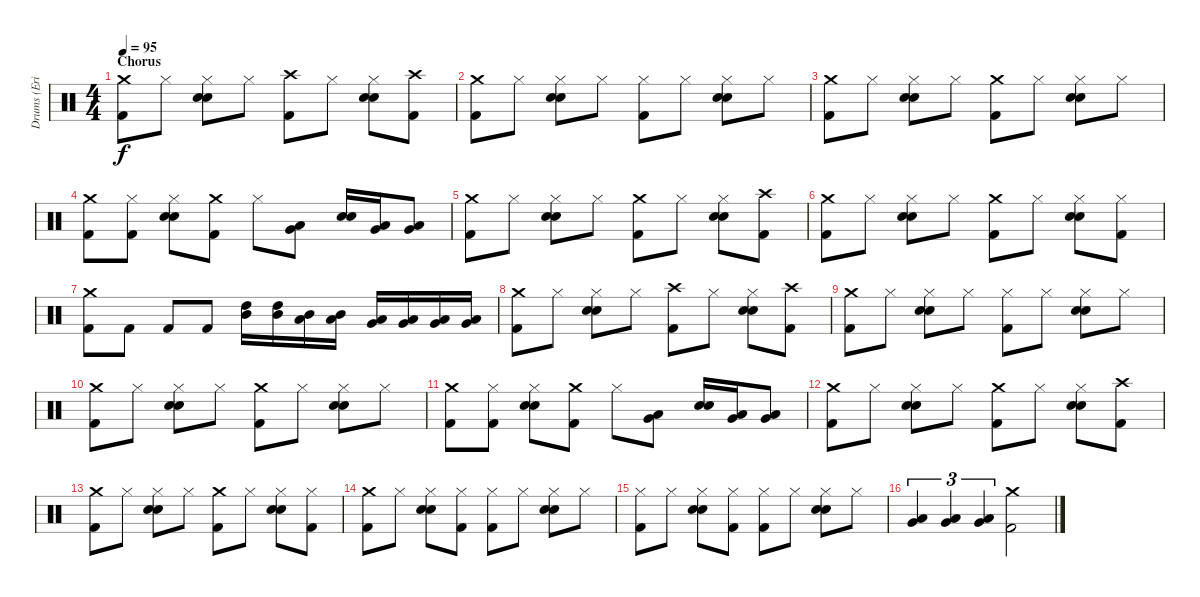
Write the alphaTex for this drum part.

\track ("Drums (Eric Carr)" "Drums (Eri") {instrument percussion}
\staff {score}
\articulation defaults
\ts (4 4)
\section ("" "Chorus")
\tempo 95
\clef neutral
\ks c
("Crash medium (hit)" "Kick (hit) 2").8{dy f} "Hi-Hat (closed)".8 ("Hi-Hat (closed)" "Electric Snare (hit)" "Snare (hit) 2").8 "Hi-Hat (closed)".8 ("Crash high (hit)" "Kick (hit) 2").8 "Hi-Hat (closed)".8 ("Hi-Hat (closed)" "Electric Snare (hit)" "Snare (hit) 2").8 ("Kick (hit) 2" "Crash high (hit)").8 |
("Crash medium (hit)" "Kick (hit) 2").8 "Hi-Hat (closed)".8 ("Hi-Hat (closed)" "Electric Snare (hit)" "Snare (hit) 2").8 "Hi-Hat (closed)".8 ("Hi-Hat (closed)" "Kick (hit) 2").8 "Hi-Hat (closed)".8 ("Hi-Hat (closed)" "Electric Snare (hit)" "Snare (hit) 2").8 "Hi-Hat (closed)".8 |
("Crash medium (hit)" "Kick (hit) 2").8 "Hi-Hat (closed)".8 ("Hi-Hat (closed)" "Electric Snare (hit)" "Snare (hit) 2").8 "Hi-Hat (closed)".8 ("Crash medium (hit)" "Kick (hit) 2").8 "Hi-Hat (closed)".8 ("Hi-Hat (closed)" "Electric Snare (hit)" "Snare (hit) 2").8 "Hi-Hat (closed)".8 |
("Crash medium (hit)" "Kick (hit) 2").8 ("Kick (hit) 2" "Hi-Hat (closed)").8 ("Hi-Hat (closed)" "Electric Snare (hit)" "Snare (hit) 2").8 ("Crash medium (hit)" "Kick (hit) 2").8 "Hi-Hat (closed)".8 ("Low Tom (hit)" "Very Low Tom (hit)").8 ("Snare (hit) 2" "Electric Snare (hit)").16 ("Very Low Tom (hit)" "Low Tom (hit)").16 ("Very Low Tom (hit)" "Low Tom (hit)").8 |
("Crash medium (hit)" "Kick (hit) 2").8 "Hi-Hat (closed)".8 ("Hi-Hat (closed)" "Electric Snare (hit)" "Snare (hit) 2").8 "Hi-Hat (closed)".8 ("Crash medium (hit)" "Kick (hit) 2").8 "Hi-Hat (closed)".8 ("Hi-Hat (closed)" "Electric Snare (hit)" "Snare (hit) 2").8 ("Kick (hit) 2" "Crash high (hit)").8 |
("Crash medium (hit)" "Kick (hit) 2").8 "Hi-Hat (closed)".8 ("Hi-Hat (closed)" "Electric Snare (hit)" "Snare (hit) 2").8 "Hi-Hat (closed)".8 ("Crash medium (hit)" "Kick (hit) 2").8 "Hi-Hat (closed)".8 ("Hi-Hat (closed)" "Electric Snare (hit)" "Snare (hit) 2").8 ("Kick (hit) 2" "Hi-Hat (closed)").8 |
("Crash medium (hit)" "Kick (hit) 2").8 "Kick (hit) 2".8 "Kick (hit) 2".8 "Kick (hit) 2".8 ("Mid Tom (hit)" "High Tom (hit)").16 ("Mid Tom (hit)" "High Tom (hit)").16 ("Low Tom (hit)" "Mid Tom (hit)").16 ("Low Tom (hit)" "Mid Tom (hit)").16 ("Low Tom (hit)" "Very Low Tom (hit)").16 ("Low Tom (hit)" "Very Low Tom (hit)").16 ("Very Low Tom (hit)" "Low Floor Tom (hit)").16 ("Very Low Tom (hit)" "Low Floor Tom (hit)").16 |
("Crash medium (hit)" "Kick (hit) 2").8 "Hi-Hat (closed)".8 ("Hi-Hat (closed)" "Electric Snare (hit)" "Snare (hit) 2").8 "Hi-Hat (closed)".8 ("Crash high (hit)" "Kick (hit) 2").8 "Hi-Hat (closed)".8 ("Hi-Hat (closed)" "Electric Snare (hit)" "Snare (hit) 2").8 ("Kick (hit) 2" "Crash high (hit)").8 |
("Crash medium (hit)" "Kick (hit) 2").8 "Hi-Hat (closed)".8 ("Hi-Hat (closed)" "Electric Snare (hit)" "Snare (hit) 2").8 "Hi-Hat (closed)".8 ("Hi-Hat (closed)" "Kick (hit) 2").8 "Hi-Hat (closed)".8 ("Hi-Hat (closed)" "Electric Snare (hit)" "Snare (hit) 2").8 "Hi-Hat (closed)".8 |
("Crash medium (hit)" "Kick (hit) 2").8 "Hi-Hat (closed)".8 ("Hi-Hat (closed)" "Electric Snare (hit)" "Snare (hit) 2").8 "Hi-Hat (closed)".8 ("Crash medium (hit)" "Kick (hit) 2").8 "Hi-Hat (closed)".8 ("Hi-Hat (closed)" "Electric Snare (hit)" "Snare (hit) 2").8 "Hi-Hat (closed)".8 |
("Crash medium (hit)" "Kick (hit) 2").8 ("Kick (hit) 2" "Hi-Hat (closed)").8 ("Hi-Hat (closed)" "Electric Snare (hit)" "Snare (hit) 2").8 ("Crash medium (hit)" "Kick (hit) 2").8 "Hi-Hat (closed)".8 ("Low Tom (hit)" "Very Low Tom (hit)").8 ("Snare (hit) 2" "Electric Snare (hit)").16 ("Very Low Tom (hit)" "Low Tom (hit)").16 ("Very Low Tom (hit)" "Low Tom (hit)").8 |
("Crash medium (hit)" "Kick (hit) 2").8 "Hi-Hat (closed)".8 ("Hi-Hat (closed)" "Electric Snare (hit)" "Snare (hit) 2").8 "Hi-Hat (closed)".8 ("Crash medium (hit)" "Kick (hit) 2").8 "Hi-Hat (closed)".8 ("Hi-Hat (closed)" "Electric Snare (hit)" "Snare (hit) 2").8 ("Kick (hit) 2" "Crash high (hit)").8 |
("Crash medium (hit)" "Kick (hit) 2").8 "Hi-Hat (closed)".8 ("Hi-Hat (closed)" "Electric Snare (hit)" "Snare (hit) 2").8 "Hi-Hat (closed)".8 ("Crash medium (hit)" "Kick (hit) 2").8 "Hi-Hat (closed)".8 ("Hi-Hat (closed)" "Electric Snare (hit)" "Snare (hit) 2").8 ("Kick (hit) 2" "Hi-Hat (closed)").8 |
("Crash medium (hit)" "Kick (hit) 2").8 "Hi-Hat (closed)".8 ("Hi-Hat (closed)" "Electric Snare (hit)" "Snare (hit) 2").8 ("Hi-Hat (closed)" "Kick (hit) 2").8 ("Hi-Hat (closed)" "Kick (hit) 2").8 "Hi-Hat (closed)".8 ("Hi-Hat (closed)" "Snare (hit) 2" "Electric Snare (hit)").8 "Hi-Hat (closed)".8 |
("Hi-Hat (closed)" "Kick (hit) 2").8 "Hi-Hat (closed)".8 ("Hi-Hat (closed)" "Snare (hit) 2" "Electric Snare (hit)").8 ("Hi-Hat (closed)" "Kick (hit) 2").8 ("Hi-Hat (closed)" "Kick (hit) 2").8 "Hi-Hat (closed)".8 ("Hi-Hat (closed)" "Electric Snare (hit)" "Snare (hit) 2").8 "Hi-Hat (closed)".8 |
("Low Tom (hit)" "Very Low Tom (hit)").4{tu (3 2)} ("Low Tom (hit)" "Very Low Tom (hit)").4{tu (3 2)} ("Low Tom (hit)" "Very Low Tom (hit)").4{tu (3 2)} ("Crash medium (hit)" "Kick (hit) 2").2
